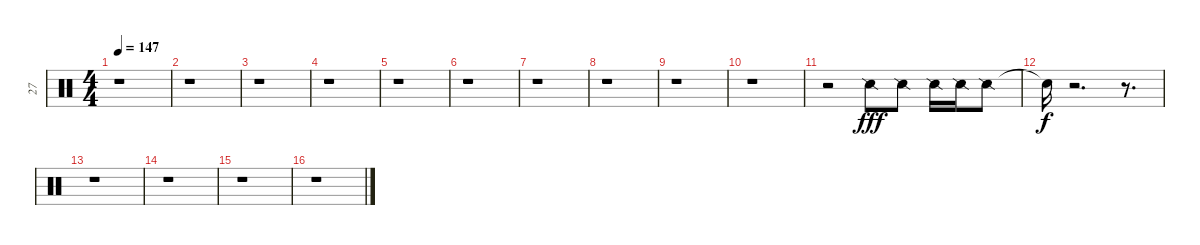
\track ("27" "27") {instrument percussion}
\staff {score}
\articulation defaults
\ts (4 4)
\tempo 147
\clef neutral
\ks c
r.1{dy fff} |
r.1 |
r.1 |
r.1 |
r.1 |
r.1 |
r.1 |
r.1 |
r.1 |
r.1 |
r.2 "Snare (side stick) 2".8 "Snare (side stick) 2".8 "Snare (side stick) 2".16 "Snare (side stick) 2".16 "Snare (side stick) 2".8 |
"Snare (hit)"{t}.16{dy f} r.2{d} r.8{d} |
r.1 |
r.1 |
r.1 |
r.1
